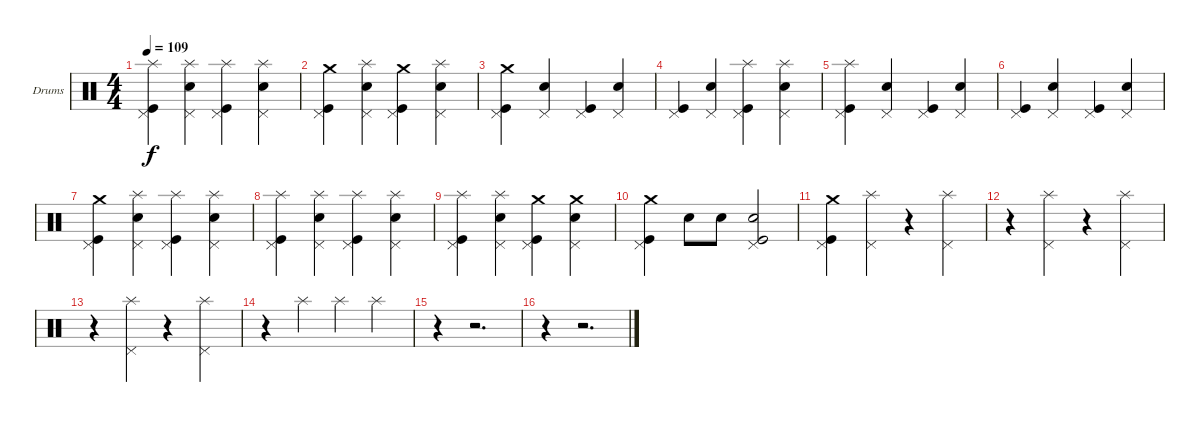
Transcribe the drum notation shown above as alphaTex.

\bracketExtendMode groupsimilarinstruments
\firstSystemTrackNameOrientation horizontal
\otherSystemsTrackNameOrientation horizontal
\track ("Drumkit" "Drums") {instrument percussion}
\staff {score}
\articulation defaults
\ts (4 4)
\tempo 109
\clef neutral
\ks c
("Splash (hit)" "Pedal Hi-Hat (hit)" "Kick (hit)").4{dy f} ("Splash (hit)" "Pedal Hi-Hat (hit)" "Snare (hit) 2").4 ("Splash (hit)" "Pedal Hi-Hat (hit)" "Kick (hit)").4 ("Splash (hit)" "Pedal Hi-Hat (hit)" "Snare (hit) 2").4 |
("Crash medium (hit)" "Pedal Hi-Hat (hit)" "Kick (hit)").4 ("Splash (hit)" "Pedal Hi-Hat (hit)" "Snare (hit) 2").4 ("Crash medium (hit)" "Pedal Hi-Hat (hit)" "Kick (hit)").4 ("Splash (hit)" "Pedal Hi-Hat (hit)" "Snare (hit) 2").4 |
("Crash medium (hit)" "Pedal Hi-Hat (hit)" "Kick (hit)").4 ("Pedal Hi-Hat (hit)" "Snare (hit) 2").4 ("Pedal Hi-Hat (hit)" "Kick (hit)").4 ("Pedal Hi-Hat (hit)" "Snare (hit) 2").4 |
("Pedal Hi-Hat (hit)" "Kick (hit)").4 ("Pedal Hi-Hat (hit)" "Snare (hit) 2").4 ("Splash (hit)" "Pedal Hi-Hat (hit)" "Kick (hit)").4 ("Splash (hit)" "Pedal Hi-Hat (hit)" "Snare (hit) 2").4 |
("Splash (hit)" "Pedal Hi-Hat (hit)" "Kick (hit)").4 ("Pedal Hi-Hat (hit)" "Snare (hit) 2").4 ("Pedal Hi-Hat (hit)" "Kick (hit)").4 ("Pedal Hi-Hat (hit)" "Snare (hit) 2").4 |
("Pedal Hi-Hat (hit)" "Kick (hit)").4 ("Pedal Hi-Hat (hit)" "Snare (hit) 2").4 ("Pedal Hi-Hat (hit)" "Kick (hit)").4 ("Pedal Hi-Hat (hit)" "Snare (hit) 2").4 |
("Crash medium (hit)" "Pedal Hi-Hat (hit)" "Kick (hit)").4 ("Splash (hit)" "Pedal Hi-Hat (hit)" "Snare (hit) 2").4 ("Splash (hit)" "Pedal Hi-Hat (hit)" "Kick (hit)").4 ("Splash (hit)" "Pedal Hi-Hat (hit)" "Snare (hit) 2").4 |
("Splash (hit)" "Pedal Hi-Hat (hit)" "Kick (hit)").4 ("Splash (hit)" "Pedal Hi-Hat (hit)" "Snare (hit) 2").4 ("Splash (hit)" "Pedal Hi-Hat (hit)" "Kick (hit)").4 ("Splash (hit)" "Pedal Hi-Hat (hit)" "Snare (hit) 2").4 |
("Splash (hit)" "Pedal Hi-Hat (hit)" "Kick (hit)").4 ("Splash (hit)" "Pedal Hi-Hat (hit)" "Snare (hit) 2").4 ("Crash medium (hit)" "Pedal Hi-Hat (hit)" "Kick (hit)").4 ("Crash medium (hit)" "Pedal Hi-Hat (hit)" "Snare (hit) 2").4 |
("Crash medium (hit)" "Pedal Hi-Hat (hit)" "Kick (hit)").4 "Snare (hit) 2".8 "Snare (hit) 2".8 ("Pedal Hi-Hat (hit)" "Snare (hit) 2" "Kick (hit)").2 |
("Crash medium (hit)" "Pedal Hi-Hat (hit)" "Kick (hit)").4 ("Splash (hit)" "Pedal Hi-Hat (hit)").4 r.4 ("Splash (hit)" "Pedal Hi-Hat (hit)").4 |
r.4 ("Splash (hit)" "Pedal Hi-Hat (hit)").4 r.4 ("Splash (hit)" "Pedal Hi-Hat (hit)").4 |
r.4 ("Splash (hit)" "Pedal Hi-Hat (hit)").4 r.4 ("Splash (hit)" "Pedal Hi-Hat (hit)").4 |
r.4 "Splash (hit)".4 "Splash (hit)".4 "Splash (hit)".4 |
r.4 r.2{d} |
r.4 r.2{d}
